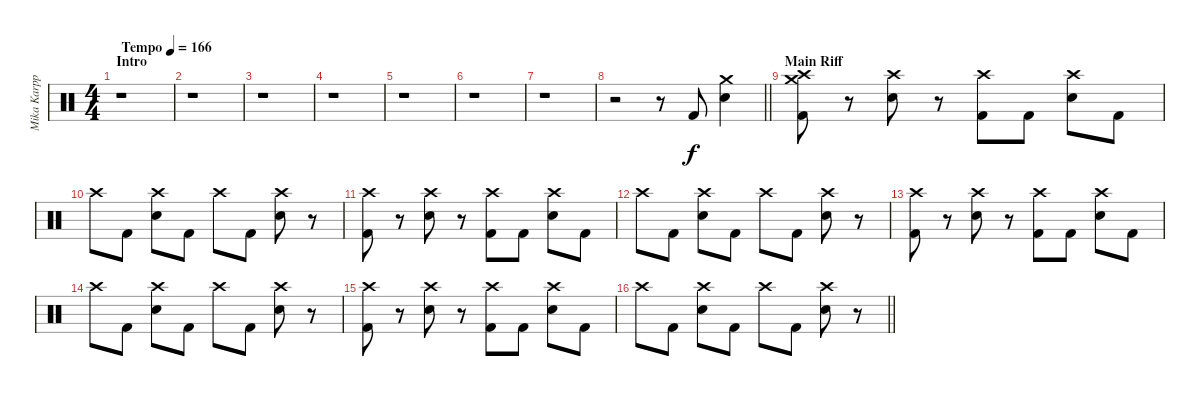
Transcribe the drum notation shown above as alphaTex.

\track ("Mika Karppinen" "Mika Karpp") {instrument percussion}
\staff {score}
\articulation defaults
\ts (4 4)
\section ("" "Intro")
\tempo (166 "Tempo")
\clef neutral
\ks c
r.1{dy f} |
r.1 |
r.1 |
r.1 |
r.1 |
r.1 |
r.1 |
\barLineRight lightlight
r.2 r.8 "Kick (hit) 2".8 ("Crash medium (hit)" "Snare (hit) 2").4 |
\section ("" "Main Riff")
("Crash medium (hit)" "Crash high (hit)" "Kick (hit) 2").8 r.8 ("Crash high (hit)" "Snare (hit) 2").8 r.8 ("Crash high (hit)" "Kick (hit) 2").8 "Kick (hit) 2".8 ("Crash high (hit)" "Snare (hit) 2").8 "Kick (hit) 2".8 |
"Crash high (hit)".8 "Kick (hit) 2".8 ("Crash high (hit)" "Snare (hit) 2").8 "Kick (hit) 2".8 "Crash high (hit)".8 "Kick (hit) 2".8 ("Crash high (hit)" "Snare (hit) 2").8 r.8 |
("Crash high (hit)" "Kick (hit) 2").8 r.8 ("Crash high (hit)" "Snare (hit) 2").8 r.8 ("Crash high (hit)" "Kick (hit) 2").8 "Kick (hit) 2".8 ("Crash high (hit)" "Snare (hit) 2").8 "Kick (hit) 2".8 |
"Crash high (hit)".8 "Kick (hit) 2".8 ("Crash high (hit)" "Snare (hit) 2").8 "Kick (hit) 2".8 "Crash high (hit)".8 "Kick (hit) 2".8 ("Crash high (hit)" "Snare (hit) 2").8 r.8 |
("Crash high (hit)" "Kick (hit) 2").8 r.8 ("Crash high (hit)" "Snare (hit) 2").8 r.8 ("Crash high (hit)" "Kick (hit) 2").8 "Kick (hit) 2".8 ("Crash high (hit)" "Snare (hit) 2").8 "Kick (hit) 2".8 |
"Crash high (hit)".8 "Kick (hit) 2".8 ("Crash high (hit)" "Snare (hit) 2").8 "Kick (hit) 2".8 "Crash high (hit)".8 "Kick (hit) 2".8 ("Crash high (hit)" "Snare (hit) 2").8 r.8 |
("Crash high (hit)" "Kick (hit) 2").8 r.8 ("Crash high (hit)" "Snare (hit) 2").8 r.8 ("Crash high (hit)" "Kick (hit) 2").8 "Kick (hit) 2".8 ("Crash high (hit)" "Snare (hit) 2").8 "Kick (hit) 2".8 |
\barLineRight lightlight "Crash high (hit)".8 "Kick (hit) 2".8
("Crash high (hit)" "Snare (hit) 2").8 "Kick (hit) 2".8 "Crash high (hit)".8 "Kick (hit) 2".8 ("Crash high (hit)" "Snare (hit) 2").8 r.8
